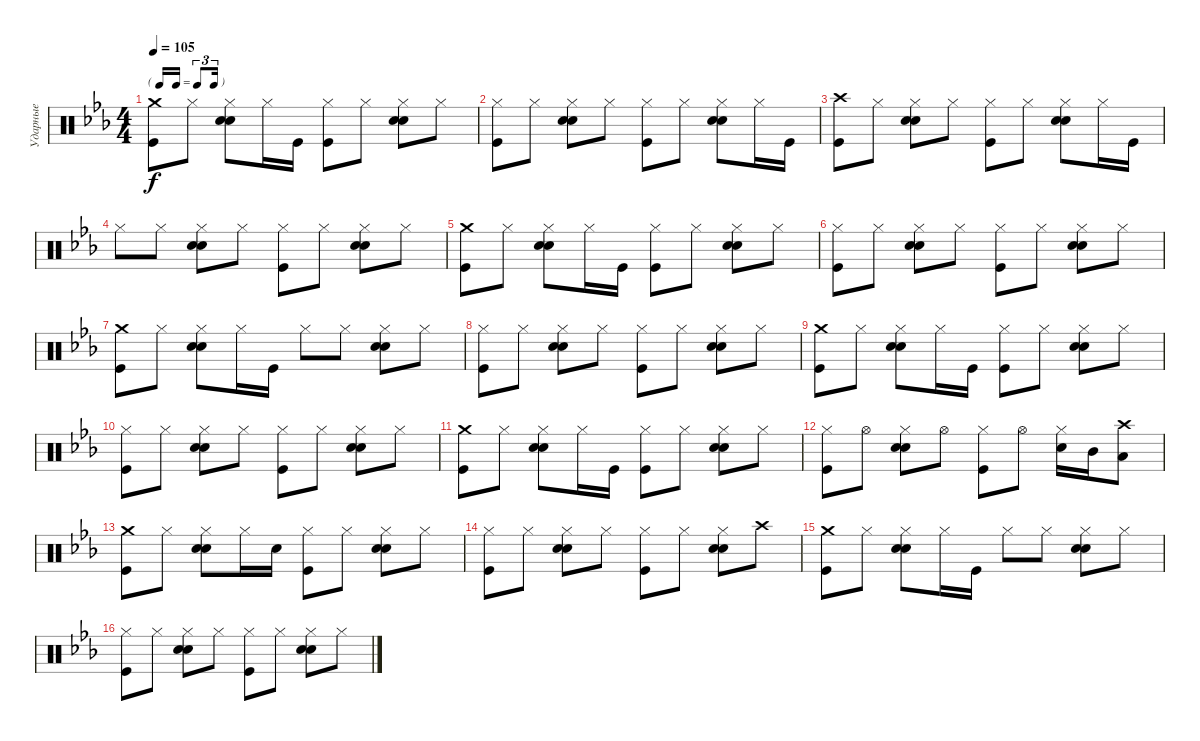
\track ("Ударные" "Ударные") {instrument percussion}
\staff {score}
\articulation defaults
\ts (4 4)
\tf triplet16th
\tempo 105
\clef neutral
\ks cminor
("Kick (hit)" "Crash medium (hit)").8{dy f} "Hi-Hat (closed)".8 ("Snare (hit) 2" "Hi-Hat (closed)" "Hand Clap (hit)").8 "Hi-Hat (closed)".16 "Kick (hit)".16 ("Kick (hit)" "Hi-Hat (closed)").8 "Hi-Hat (closed)".8 ("Snare (hit) 2" "Hi-Hat (closed)" "Hand Clap (hit)").8 "Hi-Hat (closed)".8 |
("Kick (hit)" "Hi-Hat (closed)").8 "Hi-Hat (closed)".8 ("Snare (hit) 2" "Hi-Hat (closed)" "Hand Clap (hit)").8 "Hi-Hat (closed)".8 ("Kick (hit)" "Hi-Hat (closed)").8 "Hi-Hat (closed)".8 ("Snare (hit) 2" "Hi-Hat (closed)" "Hand Clap (hit)").8 "Hi-Hat (closed)".16 "Kick (hit)".16 |
("Kick (hit)" "Crash high (hit)").8 "Hi-Hat (closed)".8 ("Snare (hit) 2" "Hi-Hat (closed)" "Hand Clap (hit)").8 "Hi-Hat (closed)".8 ("Kick (hit)" "Hi-Hat (closed)").8 "Hi-Hat (closed)".8 ("Snare (hit) 2" "Hi-Hat (closed)" "Hand Clap (hit)").8 "Hi-Hat (closed)".16 "Kick (hit)".16 |
"Hi-Hat (closed)".8 "Hi-Hat (closed)".8 ("Snare (hit) 2" "Hi-Hat (closed)" "Hand Clap (hit)").8 "Hi-Hat (closed)".8 ("Kick (hit)" "Hi-Hat (closed)").8 "Hi-Hat (closed)".8 ("Snare (hit) 2" "Hi-Hat (closed)" "Hand Clap (hit)").8 "Hi-Hat (closed)".8 |
("Kick (hit)" "Crash medium (hit)").8 "Hi-Hat (closed)".8 ("Snare (hit) 2" "Hi-Hat (closed)" "Hand Clap (hit)").8 "Hi-Hat (closed)".16 "Kick (hit)".16 ("Kick (hit)" "Hi-Hat (closed)").8 "Hi-Hat (closed)".8 ("Snare (hit) 2" "Hi-Hat (closed)" "Hand Clap (hit)").8 "Hi-Hat (closed)".8 |
("Kick (hit)" "Hi-Hat (closed)").8 "Hi-Hat (closed)".8 ("Snare (hit) 2" "Hi-Hat (closed)" "Hand Clap (hit)").8 "Hi-Hat (closed)".8 ("Kick (hit)" "Hi-Hat (closed)").8 "Hi-Hat (closed)".8 ("Snare (hit) 2" "Hi-Hat (closed)" "Hand Clap (hit)").8 "Hi-Hat (closed)".8 |
("Kick (hit)" "Crash medium (hit)").8 "Hi-Hat (closed)".8 ("Snare (hit) 2" "Hi-Hat (closed)" "Hand Clap (hit)").8 "Hi-Hat (closed)".16 "Kick (hit)".16 "Hi-Hat (closed)".8 "Hi-Hat (closed)".8 ("Snare (hit) 2" "Hi-Hat (closed)" "Hand Clap (hit)").8 "Hi-Hat (closed)".8 |
("Kick (hit)" "Hi-Hat (closed)").8 "Hi-Hat (closed)".8 ("Snare (hit) 2" "Hi-Hat (closed)" "Hand Clap (hit)").8 "Hi-Hat (closed)".8 ("Kick (hit)" "Hi-Hat (closed)").8 "Hi-Hat (closed)".8 ("Snare (hit) 2" "Hi-Hat (closed)" "Hand Clap (hit)").8 "Hi-Hat (closed)".8 |
("Kick (hit)" "Crash medium (hit)").8 "Hi-Hat (closed)".8 ("Snare (hit) 2" "Hi-Hat (closed)" "Hand Clap (hit)").8 "Hi-Hat (closed)".16 "Kick (hit)".16 ("Kick (hit)" "Hi-Hat (closed)").8 "Hi-Hat (closed)".8 ("Snare (hit) 2" "Hi-Hat (closed)" "Hand Clap (hit)").8 "Hi-Hat (closed)".8 |
("Kick (hit)" "Hi-Hat (closed)").8 "Hi-Hat (closed)".8 ("Snare (hit) 2" "Hi-Hat (closed)" "Hand Clap (hit)").8 "Hi-Hat (closed)".8 ("Kick (hit)" "Hi-Hat (closed)").8 "Hi-Hat (closed)".8 ("Snare (hit) 2" "Hi-Hat (closed)" "Hand Clap (hit)").8 "Hi-Hat (closed)".8 |
("Kick (hit)" "Crash medium (hit)").8 "Hi-Hat (closed)".8 ("Snare (hit) 2" "Hi-Hat (closed)" "Hand Clap (hit)").8 "Hi-Hat (closed)".16 "Kick (hit)".16 ("Kick (hit)" "Hi-Hat (closed)").8 "Hi-Hat (closed)".8 ("Snare (hit) 2" "Hi-Hat (closed)" "Hand Clap (hit)").8 "Hi-Hat (closed)".8 |
("Kick (hit)" "Hi-Hat (closed)").8 "Hi-Hat (open)".8 ("Snare (hit) 2" "Hi-Hat (closed)" "Hand Clap (hit)").8 "Hi-Hat (open)".8 ("Kick (hit)" "Hi-Hat (closed)").8 "Hi-Hat (open)".8 ("Snare (hit) 2" "Hi-Hat (closed)").16 "Mid Tom (hit)".16 ("Low Tom (hit)" "Crash high (hit)").8 |
("Kick (hit)" "Crash medium (hit)").8 "Hi-Hat (closed)".8 ("Snare (hit) 2" "Hi-Hat (closed)" "Hand Clap (hit)").8 "Hi-Hat (closed)".16 "Snare (hit) 2".16 ("Hi-Hat (closed)" "Kick (hit)").8 "Hi-Hat (closed)".8 ("Snare (hit) 2" "Hi-Hat (closed)" "Hand Clap (hit)").8 "Hi-Hat (closed)".8 |
("Kick (hit)" "Hi-Hat (closed)").8 "Hi-Hat (closed)".8 ("Snare (hit) 2" "Hi-Hat (closed)" "Hand Clap (hit)").8 "Hi-Hat (closed)".8 ("Kick (hit)" "Hi-Hat (closed)").8 "Hi-Hat (closed)".8 ("Snare (hit) 2" "Hi-Hat (closed)" "Hand Clap (hit)").8 "Crash high (hit)".8 |
("Kick (hit)" "Crash medium (hit)").8 "Hi-Hat (closed)".8 ("Snare (hit) 2" "Hi-Hat (closed)" "Hand Clap (hit)").8 "Hi-Hat (closed)".16 "Kick (hit)".16 "Hi-Hat (closed)".8 "Hi-Hat (closed)".8 ("Snare (hit) 2" "Hi-Hat (closed)" "Hand Clap (hit)").8 "Hi-Hat (closed)".8 |
("Kick (hit)" "Hi-Hat (closed)").8 "Hi-Hat (closed)".8 ("Snare (hit) 2" "Hi-Hat (closed)" "Hand Clap (hit)").8 "Hi-Hat (closed)".8 ("Kick (hit)" "Hi-Hat (closed)").8 "Hi-Hat (closed)".8 ("Snare (hit) 2" "Hi-Hat (closed)" "Hand Clap (hit)").8 "Hi-Hat (closed)".8
